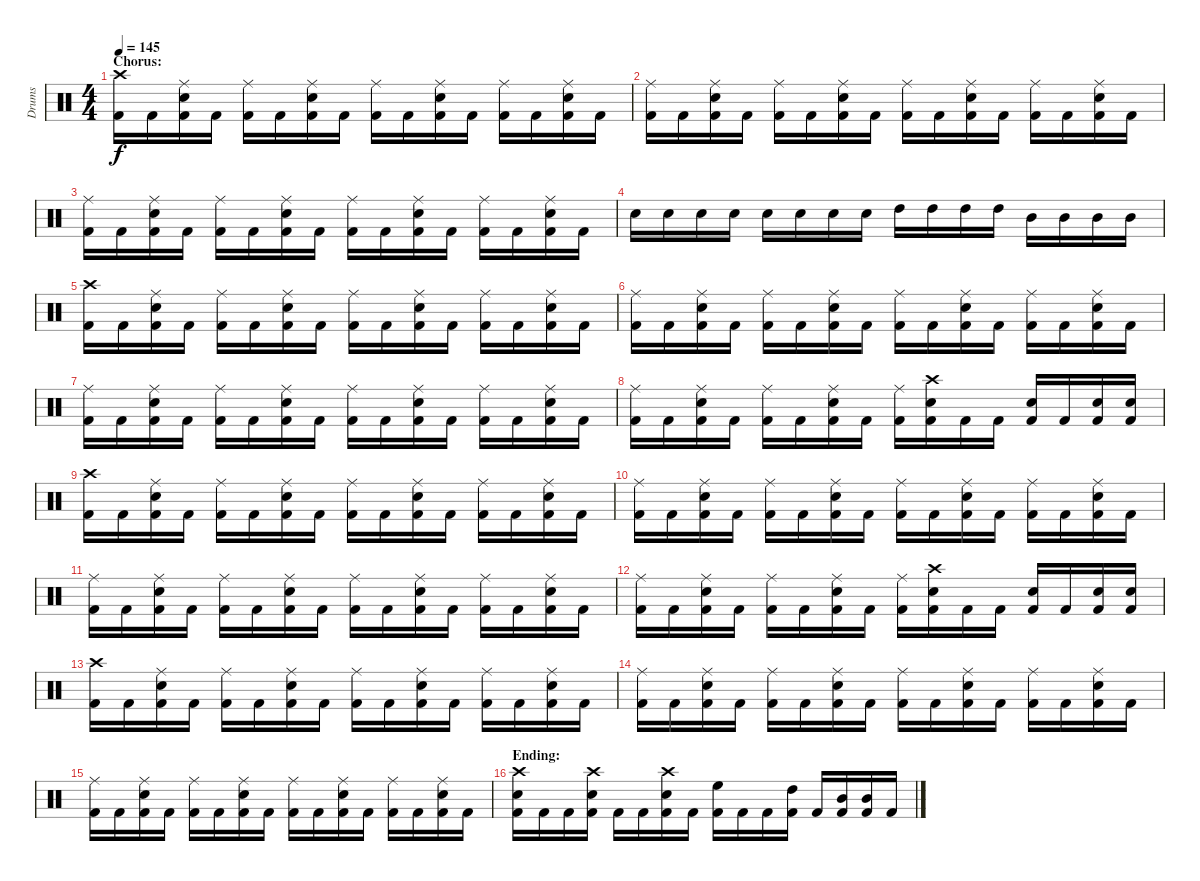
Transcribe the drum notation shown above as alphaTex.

\track ("Drums" "Drums") {instrument percussion}
\staff {score}
\articulation defaults
\ts (4 4)
\section ("" "Chorus:")
\tempo 145
\clef neutral
\ks c
("Crash high (hit)" "Kick (hit) 2").16{dy f} "Kick (hit) 2".16 ("Ride (middle)" "Electric Snare (hit)" "Kick (hit) 2").16 "Kick (hit) 2".16 ("Ride (middle)" "Kick (hit) 2").16 "Kick (hit) 2".16 ("Ride (middle)" "Electric Snare (hit)" "Kick (hit) 2").16 "Kick (hit) 2".16 ("Ride (middle)" "Kick (hit) 2").16 "Kick (hit) 2".16 ("Ride (middle)" "Electric Snare (hit)" "Kick (hit) 2").16 "Kick (hit) 2".16 ("Ride (middle)" "Kick (hit) 2").16 "Kick (hit) 2".16 ("Ride (middle)" "Electric Snare (hit)" "Kick (hit) 2").16 "Kick (hit) 2".16 |
("Ride (middle)" "Kick (hit) 2").16 "Kick (hit) 2".16 ("Ride (middle)" "Electric Snare (hit)" "Kick (hit) 2").16 "Kick (hit) 2".16 ("Ride (middle)" "Kick (hit) 2").16 "Kick (hit) 2".16 ("Ride (middle)" "Electric Snare (hit)" "Kick (hit) 2").16 "Kick (hit) 2".16 ("Ride (middle)" "Kick (hit) 2").16 "Kick (hit) 2".16 ("Ride (middle)" "Electric Snare (hit)" "Kick (hit) 2").16 "Kick (hit) 2".16 ("Ride (middle)" "Kick (hit) 2").16 "Kick (hit) 2".16 ("Ride (middle)" "Electric Snare (hit)" "Kick (hit) 2").16 "Kick (hit) 2".16 |
("Ride (middle)" "Kick (hit) 2").16 "Kick (hit) 2".16 ("Ride (middle)" "Electric Snare (hit)" "Kick (hit) 2").16 "Kick (hit) 2".16 ("Ride (middle)" "Kick (hit) 2").16 "Kick (hit) 2".16 ("Ride (middle)" "Electric Snare (hit)" "Kick (hit) 2").16 "Kick (hit) 2".16 ("Ride (middle)" "Kick (hit) 2").16 "Kick (hit) 2".16 ("Ride (middle)" "Electric Snare (hit)" "Kick (hit) 2").16 "Kick (hit) 2".16 ("Ride (middle)" "Kick (hit) 2").16 "Kick (hit) 2".16 ("Ride (middle)" "Electric Snare (hit)" "Kick (hit) 2").16 "Kick (hit) 2".16 |
"Electric Snare (hit)".16 "Electric Snare (hit)".16 "Electric Snare (hit)".16 "Electric Snare (hit)".16 "Electric Snare (hit)".16 "Electric Snare (hit)".16 "Electric Snare (hit)".16 "Electric Snare (hit)".16 "High Tom (hit)".16 "High Tom (hit)".16 "High Tom (hit)".16 "High Tom (hit)".16 "Mid Tom (hit)".16 "Mid Tom (hit)".16 "Mid Tom (hit)".16 "Mid Tom (hit)".16 |
("Crash high (hit)" "Kick (hit) 2").16 "Kick (hit) 2".16 ("Ride (middle)" "Electric Snare (hit)" "Kick (hit) 2").16 "Kick (hit) 2".16 ("Ride (middle)" "Kick (hit) 2").16 "Kick (hit) 2".16 ("Ride (middle)" "Electric Snare (hit)" "Kick (hit) 2").16 "Kick (hit) 2".16 ("Ride (middle)" "Kick (hit) 2").16 "Kick (hit) 2".16 ("Ride (middle)" "Electric Snare (hit)" "Kick (hit) 2").16 "Kick (hit) 2".16 ("Ride (middle)" "Kick (hit) 2").16 "Kick (hit) 2".16 ("Ride (middle)" "Electric Snare (hit)" "Kick (hit) 2").16 "Kick (hit) 2".16 |
("Ride (middle)" "Kick (hit) 2").16 "Kick (hit) 2".16 ("Ride (middle)" "Electric Snare (hit)" "Kick (hit) 2").16 "Kick (hit) 2".16 ("Ride (middle)" "Kick (hit) 2").16 "Kick (hit) 2".16 ("Ride (middle)" "Electric Snare (hit)" "Kick (hit) 2").16 "Kick (hit) 2".16 ("Ride (middle)" "Kick (hit) 2").16 "Kick (hit) 2".16 ("Ride (middle)" "Electric Snare (hit)" "Kick (hit) 2").16 "Kick (hit) 2".16 ("Ride (middle)" "Kick (hit) 2").16 "Kick (hit) 2".16 ("Ride (middle)" "Electric Snare (hit)" "Kick (hit) 2").16 "Kick (hit) 2".16 |
("Ride (middle)" "Kick (hit) 2").16 "Kick (hit) 2".16 ("Ride (middle)" "Electric Snare (hit)" "Kick (hit) 2").16 "Kick (hit) 2".16 ("Ride (middle)" "Kick (hit) 2").16 "Kick (hit) 2".16 ("Ride (middle)" "Electric Snare (hit)" "Kick (hit) 2").16 "Kick (hit) 2".16 ("Ride (middle)" "Kick (hit) 2").16 "Kick (hit) 2".16 ("Ride (middle)" "Electric Snare (hit)" "Kick (hit) 2").16 "Kick (hit) 2".16 ("Ride (middle)" "Kick (hit) 2").16 "Kick (hit) 2".16 ("Ride (middle)" "Electric Snare (hit)" "Kick (hit) 2").16 "Kick (hit) 2".16 |
("Ride (middle)" "Kick (hit) 2").16 "Kick (hit) 2".16 ("Ride (middle)" "Electric Snare (hit)" "Kick (hit) 2").16 "Kick (hit) 2".16 ("Ride (middle)" "Kick (hit) 2").16 "Kick (hit) 2".16 ("Ride (middle)" "Electric Snare (hit)" "Kick (hit) 2").16 "Kick (hit) 2".16 ("Ride (middle)" "Kick (hit) 2").16 ("Crash high (hit)" "Electric Snare (hit)" "Kick (hit) 2").16 "Kick (hit) 2".16 "Kick (hit) 2".16 ("Electric Snare (hit)" "Kick (hit) 2").16 "Kick (hit) 2".16 ("Electric Snare (hit)" "Kick (hit) 2").16 ("Electric Snare (hit)" "Kick (hit) 2").16 |
("Crash high (hit)" "Kick (hit) 2").16 "Kick (hit) 2".16 ("Ride (middle)" "Electric Snare (hit)" "Kick (hit) 2").16 "Kick (hit) 2".16 ("Ride (middle)" "Kick (hit) 2").16 "Kick (hit) 2".16 ("Ride (middle)" "Electric Snare (hit)" "Kick (hit) 2").16 "Kick (hit) 2".16 ("Ride (middle)" "Kick (hit) 2").16 "Kick (hit) 2".16 ("Ride (middle)" "Electric Snare (hit)" "Kick (hit) 2").16 "Kick (hit) 2".16 ("Ride (middle)" "Kick (hit) 2").16 "Kick (hit) 2".16 ("Ride (middle)" "Electric Snare (hit)" "Kick (hit) 2").16 "Kick (hit) 2".16 |
("Ride (middle)" "Kick (hit) 2").16 "Kick (hit) 2".16 ("Ride (middle)" "Electric Snare (hit)" "Kick (hit) 2").16 "Kick (hit) 2".16 ("Ride (middle)" "Kick (hit) 2").16 "Kick (hit) 2".16 ("Ride (middle)" "Electric Snare (hit)" "Kick (hit) 2").16 "Kick (hit) 2".16 ("Ride (middle)" "Kick (hit) 2").16 "Kick (hit) 2".16 ("Ride (middle)" "Electric Snare (hit)" "Kick (hit) 2").16 "Kick (hit) 2".16 ("Ride (middle)" "Kick (hit) 2").16 "Kick (hit) 2".16 ("Ride (middle)" "Electric Snare (hit)" "Kick (hit) 2").16 "Kick (hit) 2".16 |
("Ride (middle)" "Kick (hit) 2").16 "Kick (hit) 2".16 ("Ride (middle)" "Electric Snare (hit)" "Kick (hit) 2").16 "Kick (hit) 2".16 ("Ride (middle)" "Kick (hit) 2").16 "Kick (hit) 2".16 ("Ride (middle)" "Electric Snare (hit)" "Kick (hit) 2").16 "Kick (hit) 2".16 ("Ride (middle)" "Kick (hit) 2").16 "Kick (hit) 2".16 ("Ride (middle)" "Electric Snare (hit)" "Kick (hit) 2").16 "Kick (hit) 2".16 ("Ride (middle)" "Kick (hit) 2").16 "Kick (hit) 2".16 ("Ride (middle)" "Electric Snare (hit)" "Kick (hit) 2").16 "Kick (hit) 2".16 |
("Ride (middle)" "Kick (hit) 2").16 "Kick (hit) 2".16 ("Ride (middle)" "Electric Snare (hit)" "Kick (hit) 2").16 "Kick (hit) 2".16 ("Ride (middle)" "Kick (hit) 2").16 "Kick (hit) 2".16 ("Ride (middle)" "Electric Snare (hit)" "Kick (hit) 2").16 "Kick (hit) 2".16 ("Ride (middle)" "Kick (hit) 2").16 ("Crash high (hit)" "Electric Snare (hit)" "Kick (hit) 2").16 "Kick (hit) 2".16 "Kick (hit) 2".16 ("Electric Snare (hit)" "Kick (hit) 2").16 "Kick (hit) 2".16 ("Electric Snare (hit)" "Kick (hit) 2").16 ("Electric Snare (hit)" "Kick (hit) 2").16 |
("Crash high (hit)" "Kick (hit) 2").16 "Kick (hit) 2".16 ("Ride (middle)" "Electric Snare (hit)" "Kick (hit) 2").16 "Kick (hit) 2".16 ("Ride (middle)" "Kick (hit) 2").16 "Kick (hit) 2".16 ("Ride (middle)" "Electric Snare (hit)" "Kick (hit) 2").16 "Kick (hit) 2".16 ("Ride (middle)" "Kick (hit) 2").16 "Kick (hit) 2".16 ("Ride (middle)" "Electric Snare (hit)" "Kick (hit) 2").16 "Kick (hit) 2".16 ("Ride (middle)" "Kick (hit) 2").16 "Kick (hit) 2".16 ("Ride (middle)" "Electric Snare (hit)" "Kick (hit) 2").16 "Kick (hit) 2".16 |
("Ride (middle)" "Kick (hit) 2").16 "Kick (hit) 2".16 ("Ride (middle)" "Electric Snare (hit)" "Kick (hit) 2").16 "Kick (hit) 2".16 ("Ride (middle)" "Kick (hit) 2").16 "Kick (hit) 2".16 ("Ride (middle)" "Electric Snare (hit)" "Kick (hit) 2").16 "Kick (hit) 2".16 ("Ride (middle)" "Kick (hit) 2").16 "Kick (hit) 2".16 ("Ride (middle)" "Electric Snare (hit)" "Kick (hit) 2").16 "Kick (hit) 2".16 ("Ride (middle)" "Kick (hit) 2").16 "Kick (hit) 2".16 ("Ride (middle)" "Electric Snare (hit)" "Kick (hit) 2").16 "Kick (hit) 2".16 |
("Ride (middle)" "Kick (hit) 2").16 "Kick (hit) 2".16 ("Ride (middle)" "Electric Snare (hit)" "Kick (hit) 2").16 "Kick (hit) 2".16 ("Ride (middle)" "Kick (hit) 2").16 "Kick (hit) 2".16 ("Ride (middle)" "Electric Snare (hit)" "Kick (hit) 2").16 "Kick (hit) 2".16 ("Ride (middle)" "Kick (hit) 2").16 "Kick (hit) 2".16 ("Ride (middle)" "Electric Snare (hit)" "Kick (hit) 2").16 "Kick (hit) 2".16 ("Ride (middle)" "Kick (hit) 2").16 "Kick (hit) 2".16 ("Ride (middle)" "Electric Snare (hit)" "Kick (hit) 2").16 "Kick (hit) 2".16 |
\section ("" "Ending:")
("Crash high (hit)" "Electric Snare (hit)" "Kick (hit) 2").16 "Kick (hit) 2".16 "Kick (hit) 2".16 ("Crash high (hit)" "Electric Snare (hit)" "Kick (hit) 2").16 "Kick (hit) 2".16 "Kick (hit) 2".16 ("Crash high (hit)" "Electric Snare (hit)" "Kick (hit) 2").16 "Kick (hit) 2".16 ("High Floor Tom (hit)" "Kick (hit) 2").16 "Kick (hit) 2".16 "Kick (hit) 2".16 ("High Tom (hit)" "Kick (hit) 2").16 "Kick (hit) 2".16 ("Mid Tom (hit)" "Kick (hit) 2").16 ("Mid Tom (hit)" "Kick (hit) 2").16 "Kick (hit) 2".16
